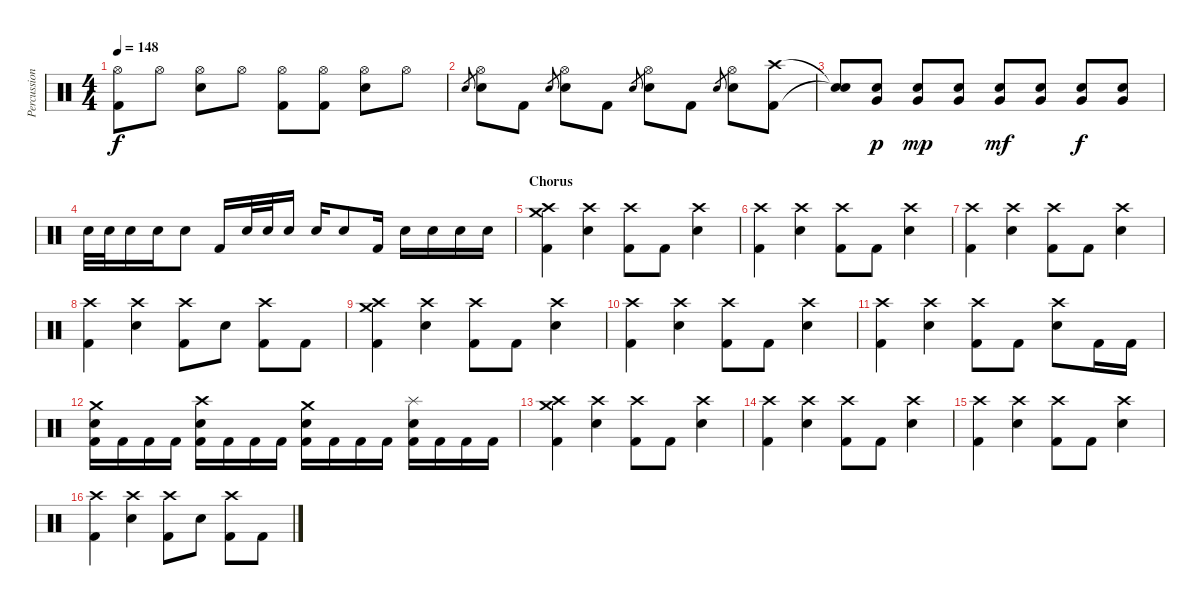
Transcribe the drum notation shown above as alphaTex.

\track ("Percussion" "Percussion") {instrument percussion}
\staff {score}
\articulation defaults
\ts (4 4)
\tempo 148
\clef neutral
\ks c
("Hi-Hat (open)" "Kick (hit) 2").8{dy f} "Hi-Hat (open)".8 ("Hi-Hat (open)" "Snare (hit) 2").8 "Hi-Hat (open)".8 ("Hi-Hat (open)" "Kick (hit) 2").8 ("Hi-Hat (open)" "Kick (hit) 2").8 ("Hi-Hat (open)" "Snare (hit) 2").8 "Hi-Hat (open)".8 |
"Snare (hit) 2".8{gr} ("Hi-Hat (open)" "Snare (hit) 2").8 "Kick (hit) 2".8 "Snare (hit) 2".8{gr} ("Hi-Hat (open)" "Snare (hit) 2").8 "Kick (hit) 2".8 "Snare (hit) 2".8{gr} ("Hi-Hat (open)" "Snare (hit) 2").8 "Kick (hit) 2".8 "Snare (hit) 2".8{gr} ("Hi-Hat (open)" "Snare (hit) 2").8 ("Crash high (hit)" "Kick (hit) 2").8 |
("Snare (hit)"{t} "Snare (hit)"{t}).8 ("Very Low Tom (hit)" "Snare (hit) 2").8{dy p} ("Very Low Tom (hit)" "Snare (hit) 2").8{dy mp} ("Very Low Tom (hit)" "Snare (hit) 2").8 ("Very Low Tom (hit)" "Snare (hit) 2").8{dy mf} ("Very Low Tom (hit)" "Snare (hit) 2").8 ("Very Low Tom (hit)" "Snare (hit) 2").8{dy f} ("Very Low Tom (hit)" "Snare (hit) 2").8 |
"Snare (hit) 2".32 "Snare (hit) 2".32 "Snare (hit) 2".16 "Snare (hit) 2".16 "Snare (hit) 2".8 "Kick (hit) 2".16 "Snare (hit) 2".32 "Snare (hit) 2".32 "Snare (hit) 2".16 "Snare (hit) 2".16 "Snare (hit) 2".8 "Kick (hit) 2".16 "Snare (hit) 2".16 "Snare (hit) 2".16 "Snare (hit) 2".16 "Snare (hit) 2".16 |
\section ("" "Chorus")
("Crash high (hit)" "Crash medium (hit)" "Kick (hit) 2").4 ("Crash high (hit)" "Snare (hit) 2").4 ("Crash high (hit)" "Kick (hit) 2").8 "Kick (hit) 2".8 ("Crash high (hit)" "Snare (hit) 2").4 |
("Crash high (hit)" "Kick (hit) 2").4 ("Crash high (hit)" "Snare (hit) 2").4 ("Crash high (hit)" "Kick (hit) 2").8 "Kick (hit) 2".8 ("Crash high (hit)" "Snare (hit) 2").4 |
("Crash high (hit)" "Kick (hit) 2").4 ("Crash high (hit)" "Snare (hit) 2").4 ("Crash high (hit)" "Kick (hit) 2").8 "Kick (hit) 2".8 ("Crash high (hit)" "Snare (hit) 2").4 |
("Crash high (hit)" "Kick (hit) 2").4 ("Crash high (hit)" "Snare (hit) 2").4 ("Crash high (hit)" "Kick (hit) 2").8 "Snare (hit) 2".8 ("Crash high (hit)" "Kick (hit) 2").8 "Kick (hit) 2".8 |
("Crash high (hit)" "Crash medium (hit)" "Kick (hit) 2").4 ("Crash high (hit)" "Snare (hit) 2").4 ("Crash high (hit)" "Kick (hit) 2").8 "Kick (hit) 2".8 ("Crash high (hit)" "Snare (hit) 2").4 |
("Crash high (hit)" "Kick (hit) 2").4 ("Crash high (hit)" "Snare (hit) 2").4 ("Crash high (hit)" "Kick (hit) 2").8 "Kick (hit) 2".8 ("Crash high (hit)" "Snare (hit) 2").4 |
("Crash high (hit)" "Kick (hit) 2").4 ("Crash high (hit)" "Snare (hit) 2").4 ("Crash high (hit)" "Kick (hit) 2").8 "Kick (hit) 2".8 ("Crash high (hit)" "Snare (hit) 2").8 "Kick (hit) 2".16 "Kick (hit) 2".16 |
("Crash medium (hit)" "Snare (hit) 2" "Kick (hit) 2").16 "Kick (hit) 2".16 "Kick (hit) 2".16 "Kick (hit) 2".16 ("Crash high (hit)" "Snare (hit) 2" "Kick (hit) 2").16 "Kick (hit) 2".16 "Kick (hit) 2".16 "Kick (hit) 2".16 ("Crash medium (hit)" "Snare (hit) 2" "Kick (hit) 2").16 "Kick (hit) 2".16 "Kick (hit) 2".16 "Kick (hit) 2".16 ("Splash (hit)" "Snare (hit) 2" "Kick (hit) 2").16 "Kick (hit) 2".16 "Kick (hit) 2".16 "Kick (hit) 2".16 |
("Crash high (hit)" "Crash medium (hit)" "Kick (hit) 2").4 ("Crash high (hit)" "Snare (hit) 2").4 ("Crash high (hit)" "Kick (hit) 2").8 "Kick (hit) 2".8 ("Crash high (hit)" "Snare (hit) 2").4 |
("Crash high (hit)" "Kick (hit) 2").4 ("Crash high (hit)" "Snare (hit) 2").4 ("Crash high (hit)" "Kick (hit) 2").8 "Kick (hit) 2".8 ("Crash high (hit)" "Snare (hit) 2").4 |
("Crash high (hit)" "Kick (hit) 2").4 ("Crash high (hit)" "Snare (hit) 2").4 ("Crash high (hit)" "Kick (hit) 2").8 "Kick (hit) 2".8 ("Crash high (hit)" "Snare (hit) 2").4 |
("Crash high (hit)" "Kick (hit) 2").4 ("Crash high (hit)" "Snare (hit) 2").4 ("Crash high (hit)" "Kick (hit) 2").8 "Snare (hit) 2".8 ("Crash high (hit)" "Kick (hit) 2").8 "Kick (hit) 2".8
